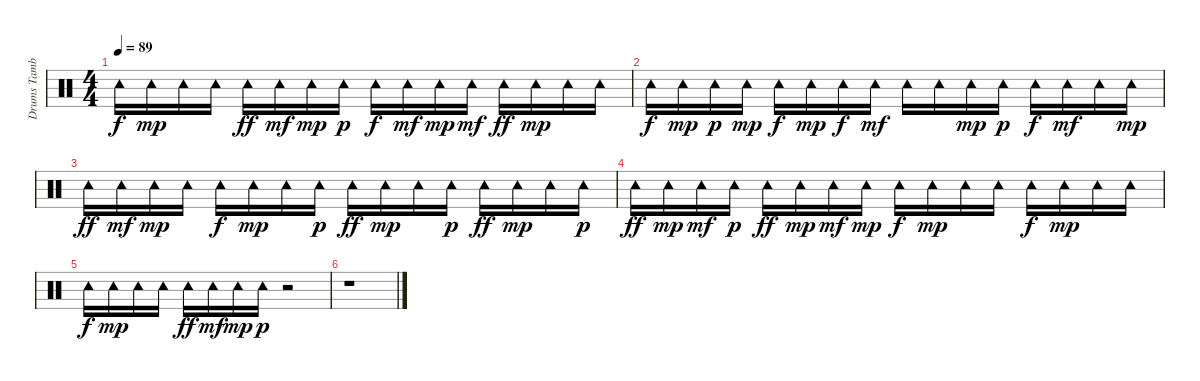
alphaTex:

\track ("Drums Tamburin" "Drums Tamb") {instrument percussion}
\staff {score}
\articulation defaults
\ts (4 4)
\tempo 89
\clef neutral
\ks c "Tambourine (hit)".16{dy f} "Tambourine (hit)".16{dy mp} "Tambourine (hit)".16 "Tambourine (hit)".16 "Tambourine (hit)".16{dy ff} "Tambourine (hit)".16{dy mf} "Tambourine (hit)".16{dy mp} "Tambourine (hit)".16{dy p} "Tambourine (hit)".16{dy f} "Tambourine (hit)".16{dy mf} "Tambourine (hit)".16{dy mp} "Tambourine (hit)".16{dy mf} "Tambourine (hit)".16{dy ff} "Tambourine (hit)".16{dy mp} "Tambourine (hit)".16 "Tambourine (hit)".16
|
"Tambourine (hit)".16{dy f} "Tambourine (hit)".16{dy mp} "Tambourine (hit)".16{dy p} "Tambourine (hit)".16{dy mp} "Tambourine (hit)".16{dy f} "Tambourine (hit)".16{dy mp} "Tambourine (hit)".16{dy f} "Tambourine (hit)".16{dy mf} "Tambourine (hit)".16 "Tambourine (hit)".16 "Tambourine (hit)".16{dy mp} "Tambourine (hit)".16{dy p} "Tambourine (hit)".16{dy f} "Tambourine (hit)".16{dy mf} "Tambourine (hit)".16 "Tambourine (hit)".16{dy mp} |
"Tambourine (hit)".16{dy ff} "Tambourine (hit)".16{dy mf} "Tambourine (hit)".16{dy mp} "Tambourine (hit)".16 "Tambourine (hit)".16{dy f} "Tambourine (hit)".16{dy mp} "Tambourine (hit)".16 "Tambourine (hit)".16{dy p} "Tambourine (hit)".16{dy ff} "Tambourine (hit)".16{dy mp} "Tambourine (hit)".16 "Tambourine (hit)".16{dy p} "Tambourine (hit)".16{dy ff} "Tambourine (hit)".16{dy mp} "Tambourine (hit)".16 "Tambourine (hit)".16{dy p} |
"Tambourine (hit)".16{dy ff} "Tambourine (hit)".16{dy mp} "Tambourine (hit)".16{dy mf} "Tambourine (hit)".16{dy p} "Tambourine (hit)".16{dy ff} "Tambourine (hit)".16{dy mp} "Tambourine (hit)".16{dy mf} "Tambourine (hit)".16{dy mp} "Tambourine (hit)".16{dy f} "Tambourine (hit)".16{dy mp} "Tambourine (hit)".16 "Tambourine (hit)".16 "Tambourine (hit)".16{dy f} "Tambourine (hit)".16{dy mp} "Tambourine (hit)".16 "Tambourine (hit)".16 |
"Tambourine (hit)".16{dy f} "Tambourine (hit)".16{dy mp} "Tambourine (hit)".16 "Tambourine (hit)".16 "Tambourine (hit)".16{dy ff} "Tambourine (hit)".16{dy mf} "Tambourine (hit)".16{dy mp} "Tambourine (hit)".16{dy p} r.2 |
r.1
